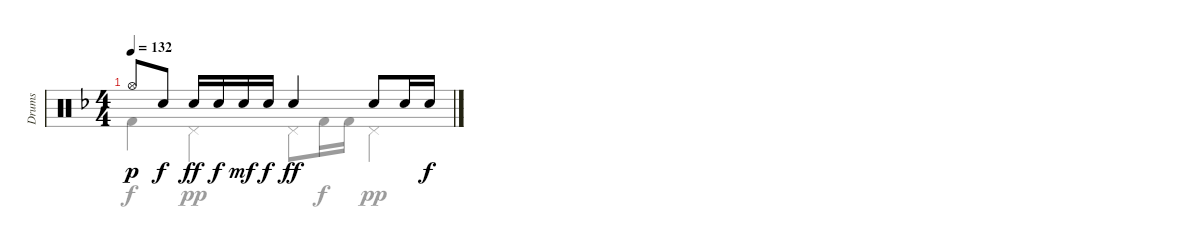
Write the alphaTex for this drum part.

\track ("Drums" "Drums") {instrument percussion}
\staff {score}
\articulation defaults
\voice
\ts (4 4)
\tempo 132
\clef neutral
\ks f "Hi-Hat (open)".8{dy p} "Electric Snare (hit)".8{dy f} "Electric Snare (hit)".16{dy ff} "Electric Snare (hit)".16{dy f} "Electric Snare (hit)".16{dy mf} "Electric Snare (hit)".16{dy f} "Electric Snare (hit)".4{dy ff} "Electric Snare (hit)".8 "Electric Snare (hit)".16 "Electric Snare (hit)".16{dy f}
\voice
\clef neutral
\ks f "Kick (hit) 2".4{dy f} "Pedal Hi-Hat (hit)".4{dy pp} "Pedal Hi-Hat (hit)".8 "Kick (hit) 2".16{dy f} "Kick (hit) 2".16 "Pedal Hi-Hat (hit)".4{dy pp}
